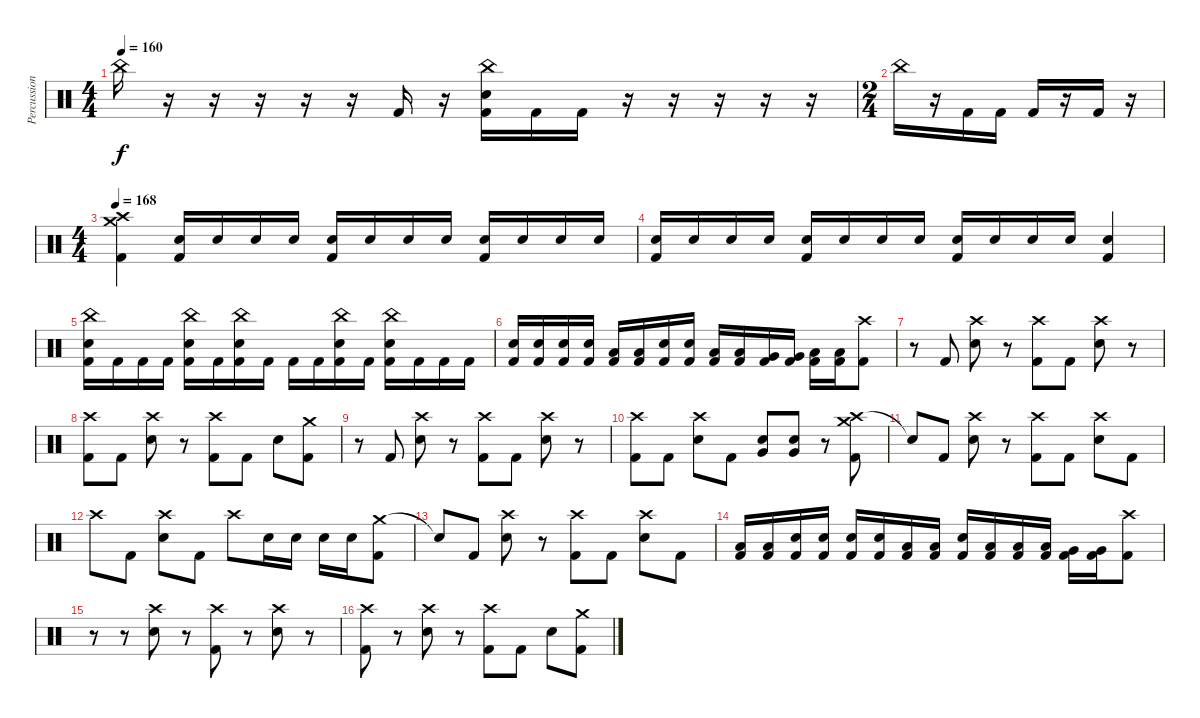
\track ("Percussion" "Percussion") {instrument percussion}
\staff {score}
\articulation defaults
\ts (4 4)
\tempo 160
\clef neutral
\ks c "China (hit)".16{dy f}
r.16 r.16 r.16 r.16 r.16 "Kick (hit) 2".16 r.16 ("China (hit)" "Electric Snare (hit)" "Kick (hit) 2").16 "Kick (hit) 2".16 "Kick (hit) 2".16 r.16 r.16 r.16 r.16 r.16 |
\ts (2 4)
"China (hit)".16 r.16 "Kick (hit) 2".16 "Kick (hit) 2".16 "Kick (hit) 2".16 r.16 "Kick (hit) 2".16 r.16 |
\ts (4 4)
\tempo 168
("Crash high (hit)" "Crash medium (hit)" "Kick (hit) 2").4 ("Electric Snare (hit)" "Kick (hit) 2").16 "Electric Snare (hit)".16 "Electric Snare (hit)".16 "Electric Snare (hit)".16 ("Electric Snare (hit)" "Kick (hit) 2").16 "Electric Snare (hit)".16 "Electric Snare (hit)".16 "Electric Snare (hit)".16 ("Electric Snare (hit)" "Kick (hit) 2").16 "Electric Snare (hit)".16 "Electric Snare (hit)".16 "Electric Snare (hit)".16 |
("Electric Snare (hit)" "Kick (hit) 2").16 "Electric Snare (hit)".16 "Electric Snare (hit)".16 "Electric Snare (hit)".16 ("Electric Snare (hit)" "Kick (hit) 2").16 "Electric Snare (hit)".16 "Electric Snare (hit)".16 "Electric Snare (hit)".16 ("Electric Snare (hit)" "Kick (hit) 2").16 "Electric Snare (hit)".16 "Electric Snare (hit)".16 "Electric Snare (hit)".16 ("Electric Snare (hit)" "Kick (hit) 2").4 |
("China (hit)" "Electric Snare (hit)" "Kick (hit) 2").16 "Kick (hit) 2".16 "Kick (hit) 2".16 "Kick (hit) 2".16 ("China (hit)" "Electric Snare (hit)" "Kick (hit) 2").16 "Kick (hit) 2".16 ("China (hit)" "Electric Snare (hit)" "Kick (hit) 2").16 "Kick (hit) 2".16 "Kick (hit) 2".16 "Kick (hit) 2".16 ("China (hit)" "Electric Snare (hit)" "Kick (hit) 2").16 "Kick (hit) 2".16 ("China (hit)" "Electric Snare (hit)" "Kick (hit) 2").16 "Kick (hit) 2".16 "Kick (hit) 2".16 "Kick (hit) 2".16 |
("Electric Snare (hit)" "Kick (hit) 2").16 ("Electric Snare (hit)" "Kick (hit) 2").16 ("Electric Snare (hit)" "Kick (hit) 2").16 ("Electric Snare (hit)" "Kick (hit) 2").16 ("Low Tom (hit)" "Kick (hit) 2").16 ("Low Tom (hit)" "Kick (hit) 2").16 ("Electric Snare (hit)" "Kick (hit) 2").16 ("Electric Snare (hit)" "Kick (hit) 2").16 ("Low Tom (hit)" "Kick (hit) 2").16 ("Low Tom (hit)" "Kick (hit) 2").16 ("Very Low Tom (hit)" "Kick (hit) 2").16 ("Very Low Tom (hit)" "Kick (hit) 2").16 ("Low Floor Tom (hit)" "Kick (hit) 2").16 ("Low Floor Tom (hit)" "Kick (hit) 2").16 ("Crash high (hit)" "Kick (hit) 2").8 |
r.8 "Kick (hit) 2".8 ("Crash high (hit)" "Electric Snare (hit)").8 r.8 ("Crash high (hit)" "Kick (hit) 2").8 "Kick (hit) 2".8 ("Crash high (hit)" "Electric Snare (hit)").8 r.8 |
("Crash high (hit)" "Kick (hit) 2").8 "Kick (hit) 2".8 ("Crash high (hit)" "Electric Snare (hit)").8 r.8 ("Crash high (hit)" "Kick (hit) 2").8 "Kick (hit) 2".8 "Electric Snare (hit)".8 ("Crash medium (hit)" "Kick (hit) 2").8 |
r.8 "Kick (hit) 2".8 ("Crash high (hit)" "Electric Snare (hit)").8 r.8 ("Crash high (hit)" "Kick (hit) 2").8 "Kick (hit) 2".8 ("Crash high (hit)" "Electric Snare (hit)").8 r.8 |
("Crash high (hit)" "Kick (hit) 2").8 "Kick (hit) 2".8 ("Crash high (hit)" "Electric Snare (hit)").8 "Kick (hit) 2".8 ("Very Low Tom (hit)" "Electric Snare (hit)").8 ("Very Low Tom (hit)" "Electric Snare (hit)").8 r.8 ("Crash high (hit)" "Crash medium (hit)" "Kick (hit) 2").8 |
"Snare (hit)"{t}.8 "Kick (hit) 2".8 ("Crash high (hit)" "Electric Snare (hit)").8 r.8 ("Crash high (hit)" "Kick (hit) 2").8 "Kick (hit) 2".8 ("Crash high (hit)" "Electric Snare (hit)").8 "Kick (hit) 2".8 |
"Crash high (hit)".8 "Kick (hit) 2".8 ("Crash high (hit)" "Electric Snare (hit)").8 "Kick (hit) 2".8 "Crash high (hit)".8 "Electric Snare (hit)".16 "Electric Snare (hit)".16 "Electric Snare (hit)".16 "Electric Snare (hit)".16 ("Crash medium (hit)" "Kick (hit) 2").8 |
"Snare (hit)"{t}.8 "Kick (hit) 2".8 ("Crash high (hit)" "Electric Snare (hit)").8 r.8 ("Crash high (hit)" "Kick (hit) 2").8 "Kick (hit) 2".8 ("Crash high (hit)" "Electric Snare (hit)").8 "Kick (hit) 2".8 |
("Low Tom (hit)" "Kick (hit) 2").16 ("Low Tom (hit)" "Kick (hit) 2").16 ("Electric Snare (hit)" "Kick (hit) 2").16 ("Electric Snare (hit)" "Kick (hit) 2").16 ("Electric Snare (hit)" "Kick (hit) 2").16 ("Electric Snare (hit)" "Kick (hit) 2").16 ("Low Tom (hit)" "Kick (hit) 2").16 ("Low Tom (hit)" "Kick (hit) 2").16 ("Electric Snare (hit)" "Kick (hit) 2").16 ("Low Tom (hit)" "Kick (hit) 2").16 ("Low Tom (hit)" "Kick (hit) 2").16 ("Low Tom (hit)" "Kick (hit) 2").16 ("Very Low Tom (hit)" "Kick (hit) 2").16 ("Very Low Tom (hit)" "Kick (hit) 2").16 ("Crash high (hit)" "Kick (hit) 2").8 |
r.8 r.8 ("Crash high (hit)" "Electric Snare (hit)").8 r.8 ("Crash high (hit)" "Kick (hit) 2").8 r.8 ("Crash high (hit)" "Electric Snare (hit)").8 r.8 |
("Crash high (hit)" "Kick (hit) 2").8 r.8 ("Crash high (hit)" "Electric Snare (hit)").8 r.8 ("Crash high (hit)" "Kick (hit) 2").8 "Kick (hit) 2".8 "Electric Snare (hit)".8 ("Crash medium (hit)" "Kick (hit) 2").8
